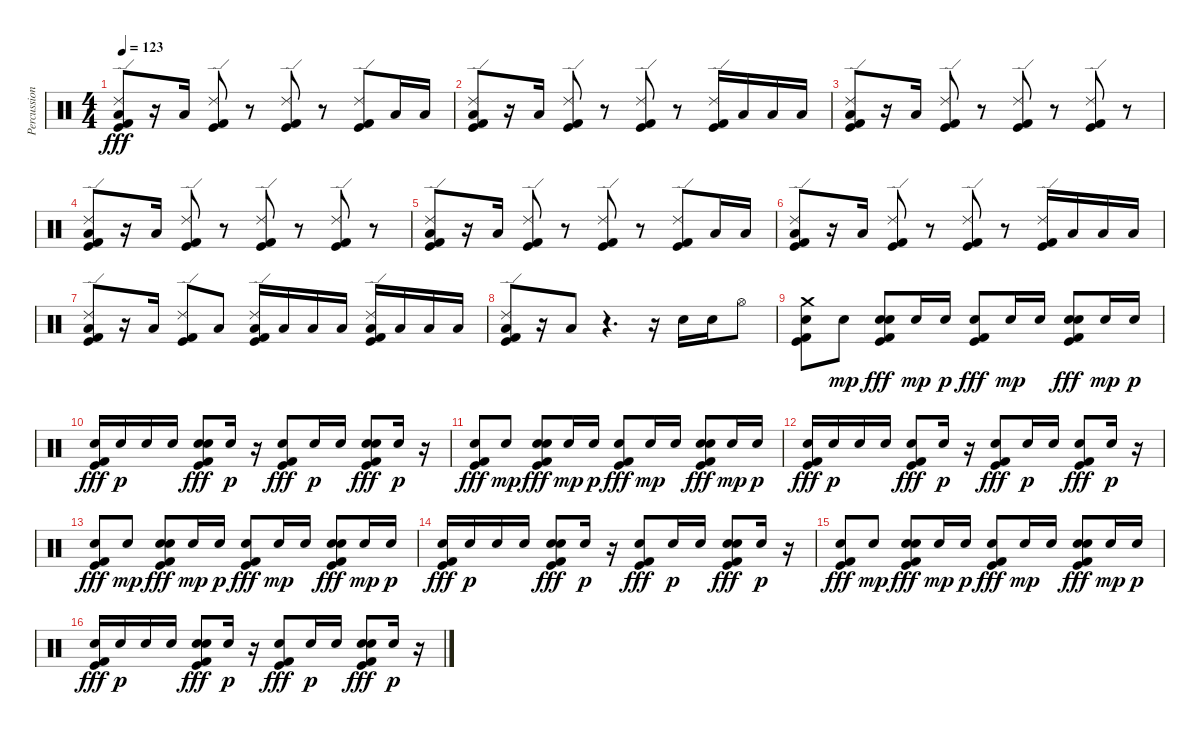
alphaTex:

\track ("Percussion" "Percussion") {instrument percussion}
\staff {score}
\articulation defaults
\ts (4 4)
\tempo 123
\clef neutral
\ks c
("Kick (hit)" "Kick (hit) 2" "Ride (edge) 2" "Low Floor Tom (hit)").8{dy fff} r.16 "Low Floor Tom (hit)".16 ("Ride (edge) 2" "Kick (hit) 2" "Kick (hit)").8 r.8 ("Ride (edge) 2" "Kick (hit) 2" "Kick (hit)").8 r.8 ("Ride (edge) 2" "Kick (hit) 2" "Kick (hit)").8 "Low Floor Tom (hit)".16 "Low Floor Tom (hit)".16 |
("Ride (edge) 2" "Kick (hit) 2" "Kick (hit)" "Low Floor Tom (hit)").8 r.16 "Low Floor Tom (hit)".16 ("Ride (edge) 2" "Kick (hit) 2" "Kick (hit)").8 r.8 ("Ride (edge) 2" "Kick (hit) 2" "Kick (hit)").8 r.8 ("Ride (edge) 2" "Kick (hit) 2" "Kick (hit)").16 "Low Floor Tom (hit)".16 "Low Floor Tom (hit)".16 "Low Floor Tom (hit)".16 |
("Ride (edge) 2" "Kick (hit) 2" "Kick (hit)" "Low Floor Tom (hit)").8 r.16 "Low Floor Tom (hit)".16 ("Ride (edge) 2" "Kick (hit) 2" "Kick (hit)").8 r.8 ("Ride (edge) 2" "Kick (hit) 2" "Kick (hit)").8 r.8 ("Ride (edge) 2" "Kick (hit) 2" "Kick (hit)").8 r.8 |
("Ride (edge) 2" "Kick (hit) 2" "Kick (hit)" "Low Floor Tom (hit)").8 r.16 "Low Floor Tom (hit)".16 ("Ride (edge) 2" "Kick (hit) 2" "Kick (hit)").8 r.8 ("Ride (edge) 2" "Kick (hit) 2" "Kick (hit)").8 r.8 ("Ride (edge) 2" "Kick (hit) 2" "Kick (hit)").8 r.8 |
("Kick (hit)" "Kick (hit) 2" "Ride (edge) 2" "Low Floor Tom (hit)").8 r.16 "Low Floor Tom (hit)".16 ("Ride (edge) 2" "Kick (hit) 2" "Kick (hit)").8 r.8 ("Ride (edge) 2" "Kick (hit) 2" "Kick (hit)").8 r.8 ("Ride (edge) 2" "Kick (hit) 2" "Kick (hit)").8 "Low Floor Tom (hit)".16 "Low Floor Tom (hit)".16 |
("Ride (edge) 2" "Kick (hit) 2" "Kick (hit)" "Low Floor Tom (hit)").8 r.16 "Low Floor Tom (hit)".16 ("Ride (edge) 2" "Kick (hit) 2" "Kick (hit)").8 r.8 ("Ride (edge) 2" "Kick (hit) 2" "Kick (hit)").8 r.8 ("Ride (edge) 2" "Kick (hit) 2" "Kick (hit)").16 "Low Floor Tom (hit)".16 "Low Floor Tom (hit)".16 "Low Floor Tom (hit)".16 |
("Ride (edge) 2" "Kick (hit) 2" "Kick (hit)" "Low Floor Tom (hit)").8 r.16 "Low Floor Tom (hit)".16 ("Ride (edge) 2" "Kick (hit) 2" "Kick (hit)").8 "Low Floor Tom (hit)".8 ("Ride (edge) 2" "Kick (hit) 2" "Kick (hit)" "Low Floor Tom (hit)").16 "Low Floor Tom (hit)".16 "Low Floor Tom (hit)".16 "Low Floor Tom (hit)".16 ("Ride (edge) 2" "Kick (hit) 2" "Kick (hit)" "Low Floor Tom (hit)").16 "Low Floor Tom (hit)".16 "Low Floor Tom (hit)".16 "Low Floor Tom (hit)".16 |
("Ride (edge) 2" "Kick (hit) 2" "Kick (hit)" "Low Floor Tom (hit)").8 r.16 "Low Floor Tom (hit)".8 r.4{d} r.16 "Electric Snare (hit)".16 "Electric Snare (hit)".16 "Hi-Hat (open)".8 |
("Hand Clap (hit)" "Crash medium (hit)" "Kick (hit)" "Kick (hit) 2").8 "Hand Clap (hit)".8{dy mp} ("Kick (hit) 2" "Kick (hit)" "Snare (hit) 2" "Hand Clap (hit)").8{dy fff} "Hand Clap (hit)".16{dy mp} "Hand Clap (hit)".16{dy p} ("Kick (hit) 2" "Kick (hit)" "Hand Clap (hit)").8{dy fff} "Hand Clap (hit)".16{dy mp} "Hand Clap (hit)".16 ("Kick (hit) 2" "Kick (hit)" "Snare (hit) 2" "Hand Clap (hit)").8{dy fff} "Hand Clap (hit)".16{dy mp} "Hand Clap (hit)".16{dy p} |
("Kick (hit) 2" "Kick (hit)" "Hand Clap (hit)").16{dy fff} "Hand Clap (hit)".16{dy p} "Hand Clap (hit)".16 "Hand Clap (hit)".16 ("Kick (hit) 2" "Kick (hit)" "Hand Clap (hit)" "Snare (hit) 2").8{dy fff} "Hand Clap (hit)".16{dy p} r.16 ("Kick (hit) 2" "Kick (hit)" "Hand Clap (hit)").8{dy fff} "Hand Clap (hit)".16{dy p} "Hand Clap (hit)".16 ("Kick (hit) 2" "Kick (hit)" "Hand Clap (hit)" "Snare (hit) 2").8{dy fff} "Hand Clap (hit)".16{dy p} r.16 |
("Kick (hit) 2" "Kick (hit)" "Hand Clap (hit)").8{dy fff} "Hand Clap (hit)".8{dy mp} ("Kick (hit) 2" "Kick (hit)" "Snare (hit) 2" "Hand Clap (hit)").8{dy fff} "Hand Clap (hit)".16{dy mp} "Hand Clap (hit)".16{dy p} ("Kick (hit) 2" "Kick (hit)" "Hand Clap (hit)").8{dy fff} "Hand Clap (hit)".16{dy mp} "Hand Clap (hit)".16 ("Kick (hit) 2" "Kick (hit)" "Snare (hit) 2" "Hand Clap (hit)").8{dy fff} "Hand Clap (hit)".16{dy mp} "Hand Clap (hit)".16{dy p} |
("Kick (hit) 2" "Kick (hit)" "Hand Clap (hit)").16{dy fff} "Hand Clap (hit)".16{dy p} "Hand Clap (hit)".16 "Hand Clap (hit)".16 ("Kick (hit) 2" "Kick (hit)" "Hand Clap (hit)").8{dy fff} "Hand Clap (hit)".16{dy p} r.16 ("Kick (hit) 2" "Kick (hit)" "Hand Clap (hit)").8{dy fff} "Hand Clap (hit)".16{dy p} "Hand Clap (hit)".16 ("Kick (hit) 2" "Kick (hit)" "Hand Clap (hit)").8{dy fff} "Hand Clap (hit)".16{dy p} r.16 |
("Kick (hit) 2" "Kick (hit)" "Hand Clap (hit)").8{dy fff} "Hand Clap (hit)".8{dy mp} ("Kick (hit) 2" "Kick (hit)" "Snare (hit) 2" "Hand Clap (hit)").8{dy fff} "Hand Clap (hit)".16{dy mp} "Hand Clap (hit)".16{dy p} ("Kick (hit) 2" "Kick (hit)" "Hand Clap (hit)").8{dy fff} "Hand Clap (hit)".16{dy mp} "Hand Clap (hit)".16 ("Kick (hit) 2" "Kick (hit)" "Snare (hit) 2" "Hand Clap (hit)").8{dy fff} "Hand Clap (hit)".16{dy mp} "Hand Clap (hit)".16{dy p} |
("Kick (hit) 2" "Kick (hit)" "Hand Clap (hit)").16{dy fff} "Hand Clap (hit)".16{dy p} "Hand Clap (hit)".16 "Hand Clap (hit)".16 ("Kick (hit) 2" "Kick (hit)" "Hand Clap (hit)" "Snare (hit) 2").8{dy fff} "Hand Clap (hit)".16{dy p} r.16 ("Kick (hit) 2" "Kick (hit)" "Hand Clap (hit)").8{dy fff} "Hand Clap (hit)".16{dy p} "Hand Clap (hit)".16 ("Kick (hit) 2" "Kick (hit)" "Hand Clap (hit)" "Snare (hit) 2").8{dy fff} "Hand Clap (hit)".16{dy p} r.16 |
("Kick (hit) 2" "Kick (hit)" "Hand Clap (hit)").8{dy fff} "Hand Clap (hit)".8{dy mp} ("Kick (hit) 2" "Kick (hit)" "Snare (hit) 2" "Hand Clap (hit)").8{dy fff} "Hand Clap (hit)".16{dy mp} "Hand Clap (hit)".16{dy p} ("Kick (hit) 2" "Kick (hit)" "Hand Clap (hit)").8{dy fff} "Hand Clap (hit)".16{dy mp} "Hand Clap (hit)".16 ("Kick (hit) 2" "Kick (hit)" "Snare (hit) 2" "Hand Clap (hit)").8{dy fff} "Hand Clap (hit)".16{dy mp} "Hand Clap (hit)".16{dy p} |
("Kick (hit) 2" "Kick (hit)" "Hand Clap (hit)").16{dy fff} "Hand Clap (hit)".16{dy p} "Hand Clap (hit)".16 "Hand Clap (hit)".16 ("Kick (hit) 2" "Kick (hit)" "Hand Clap (hit)" "Snare (hit) 2").8{dy fff} "Hand Clap (hit)".16{dy p} r.16 ("Kick (hit) 2" "Kick (hit)" "Hand Clap (hit)").8{dy fff} "Hand Clap (hit)".16{dy p} "Hand Clap (hit)".16 ("Kick (hit) 2" "Kick (hit)" "Hand Clap (hit)" "Snare (hit) 2").8{dy fff} "Hand Clap (hit)".16{dy p} r.16
